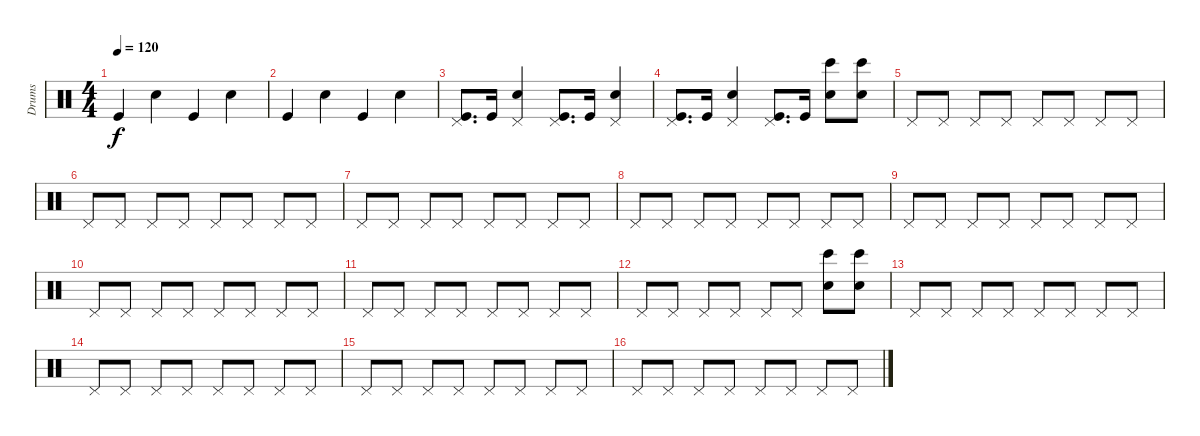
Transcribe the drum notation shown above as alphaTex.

\track ("Drums" "Drums") {instrument percussion}
\staff {score}
\articulation defaults
\ts (4 4)
\tempo 120
\clef neutral
\ks c "Kick (hit)".4{dy f} "Snare (hit) 2".4 "Kick (hit)".4 "Snare (hit) 2".4
|
"Kick (hit)".4 "Snare (hit) 2".4 "Kick (hit)".4 "Snare (hit) 2".4 |
("Kick (hit)" "Pedal Hi-Hat (hit)").8{d} "Kick (hit)".16 ("Snare (hit) 2" "Pedal Hi-Hat (hit)").4 ("Kick (hit)" "Pedal Hi-Hat (hit)").8{d} "Kick (hit)".16 ("Snare (hit) 2" "Pedal Hi-Hat (hit)").4 |
("Kick (hit)" "Pedal Hi-Hat (hit)").8{d} "Kick (hit)".16 ("Snare (hit) 2" "Pedal Hi-Hat (hit)").4 ("Kick (hit)" "Pedal Hi-Hat (hit)").8{d} "Kick (hit)".16 ("Bongo High (hit)" "Hand Clap (hit)").8 ("Bongo High (hit)" "Hand Clap (hit)").8 |
"Pedal Hi-Hat (hit)".8 "Pedal Hi-Hat (hit)".8 "Pedal Hi-Hat (hit)".8 "Pedal Hi-Hat (hit)".8 "Pedal Hi-Hat (hit)".8 "Pedal Hi-Hat (hit)".8 "Pedal Hi-Hat (hit)".8 "Pedal Hi-Hat (hit)".8 |
"Pedal Hi-Hat (hit)".8 "Pedal Hi-Hat (hit)".8 "Pedal Hi-Hat (hit)".8 "Pedal Hi-Hat (hit)".8 "Pedal Hi-Hat (hit)".8 "Pedal Hi-Hat (hit)".8 "Pedal Hi-Hat (hit)".8 "Pedal Hi-Hat (hit)".8 |
"Pedal Hi-Hat (hit)".8 "Pedal Hi-Hat (hit)".8 "Pedal Hi-Hat (hit)".8 "Pedal Hi-Hat (hit)".8 "Pedal Hi-Hat (hit)".8 "Pedal Hi-Hat (hit)".8 "Pedal Hi-Hat (hit)".8 "Pedal Hi-Hat (hit)".8 |
"Pedal Hi-Hat (hit)".8 "Pedal Hi-Hat (hit)".8 "Pedal Hi-Hat (hit)".8 "Pedal Hi-Hat (hit)".8 "Pedal Hi-Hat (hit)".8 "Pedal Hi-Hat (hit)".8 "Pedal Hi-Hat (hit)".8 "Pedal Hi-Hat (hit)".8 |
"Pedal Hi-Hat (hit)".8 "Pedal Hi-Hat (hit)".8 "Pedal Hi-Hat (hit)".8 "Pedal Hi-Hat (hit)".8 "Pedal Hi-Hat (hit)".8 "Pedal Hi-Hat (hit)".8 "Pedal Hi-Hat (hit)".8 "Pedal Hi-Hat (hit)".8 |
"Pedal Hi-Hat (hit)".8 "Pedal Hi-Hat (hit)".8 "Pedal Hi-Hat (hit)".8 "Pedal Hi-Hat (hit)".8 "Pedal Hi-Hat (hit)".8 "Pedal Hi-Hat (hit)".8 "Pedal Hi-Hat (hit)".8 "Pedal Hi-Hat (hit)".8 |
"Pedal Hi-Hat (hit)".8 "Pedal Hi-Hat (hit)".8 "Pedal Hi-Hat (hit)".8 "Pedal Hi-Hat (hit)".8 "Pedal Hi-Hat (hit)".8 "Pedal Hi-Hat (hit)".8 "Pedal Hi-Hat (hit)".8 "Pedal Hi-Hat (hit)".8 |
"Pedal Hi-Hat (hit)".8 "Pedal Hi-Hat (hit)".8 "Pedal Hi-Hat (hit)".8 "Pedal Hi-Hat (hit)".8 "Pedal Hi-Hat (hit)".8 "Pedal Hi-Hat (hit)".8 ("Bongo High (hit)" "Hand Clap (hit)").8 ("Bongo High (hit)" "Hand Clap (hit)").8 |
"Pedal Hi-Hat (hit)".8 "Pedal Hi-Hat (hit)".8 "Pedal Hi-Hat (hit)".8 "Pedal Hi-Hat (hit)".8 "Pedal Hi-Hat (hit)".8 "Pedal Hi-Hat (hit)".8 "Pedal Hi-Hat (hit)".8 "Pedal Hi-Hat (hit)".8 |
"Pedal Hi-Hat (hit)".8 "Pedal Hi-Hat (hit)".8 "Pedal Hi-Hat (hit)".8 "Pedal Hi-Hat (hit)".8 "Pedal Hi-Hat (hit)".8 "Pedal Hi-Hat (hit)".8 "Pedal Hi-Hat (hit)".8 "Pedal Hi-Hat (hit)".8 |
"Pedal Hi-Hat (hit)".8 "Pedal Hi-Hat (hit)".8 "Pedal Hi-Hat (hit)".8 "Pedal Hi-Hat (hit)".8 "Pedal Hi-Hat (hit)".8 "Pedal Hi-Hat (hit)".8 "Pedal Hi-Hat (hit)".8 "Pedal Hi-Hat (hit)".8 |
"Pedal Hi-Hat (hit)".8 "Pedal Hi-Hat (hit)".8 "Pedal Hi-Hat (hit)".8 "Pedal Hi-Hat (hit)".8 "Pedal Hi-Hat (hit)".8 "Pedal Hi-Hat (hit)".8 "Pedal Hi-Hat (hit)".8 "Pedal Hi-Hat (hit)".8
